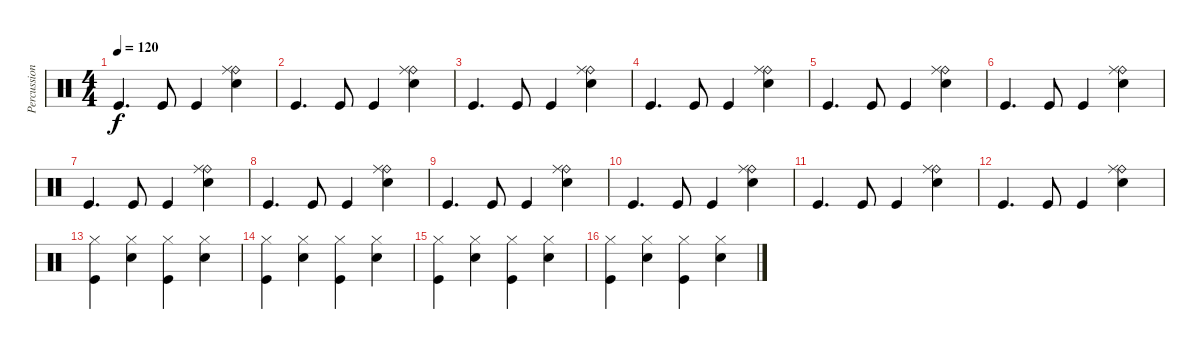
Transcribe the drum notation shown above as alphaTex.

\track ("Percussion" "Percussion") {instrument percussion}
\staff {score}
\articulation defaults
\ts (4 4)
\tempo 120
\clef neutral
\ks c "Kick (hit)".4{d dy f} "Kick (hit)".8 "Kick (hit)".4
("Electric Snare (hit)" "Ride (bell)" "Ride (middle)").4 |
"Kick (hit)".4{d} "Kick (hit)".8 "Kick (hit)".4 ("Electric Snare (hit)" "Ride (bell)" "Ride (middle)").4 |
"Kick (hit)".4{d} "Kick (hit)".8 "Kick (hit)".4 ("Electric Snare (hit)" "Ride (bell)" "Ride (middle)").4 |
"Kick (hit)".4{d} "Kick (hit)".8 "Kick (hit)".4 ("Electric Snare (hit)" "Ride (bell)" "Ride (middle)").4 |
"Kick (hit)".4{d} "Kick (hit)".8 "Kick (hit)".4 ("Electric Snare (hit)" "Ride (bell)" "Ride (middle)").4 |
"Kick (hit)".4{d} "Kick (hit)".8 "Kick (hit)".4 ("Electric Snare (hit)" "Ride (bell)" "Ride (middle)").4 |
"Kick (hit)".4{d} "Kick (hit)".8 "Kick (hit)".4 ("Electric Snare (hit)" "Ride (bell)" "Ride (middle)").4 |
"Kick (hit)".4{d} "Kick (hit)".8 "Kick (hit)".4 ("Electric Snare (hit)" "Ride (bell)" "Ride (middle)").4 |
"Kick (hit)".4{d} "Kick (hit)".8 "Kick (hit)".4 ("Electric Snare (hit)" "Ride (bell)" "Ride (middle)").4 |
"Kick (hit)".4{d} "Kick (hit)".8 "Kick (hit)".4 ("Electric Snare (hit)" "Ride (bell)" "Ride (middle)").4 |
"Kick (hit)".4{d} "Kick (hit)".8 "Kick (hit)".4 ("Electric Snare (hit)" "Ride (bell)" "Ride (middle)").4 |
"Kick (hit)".4{d} "Kick (hit)".8 "Kick (hit)".4 ("Electric Snare (hit)" "Ride (bell)" "Ride (middle)").4 |
("Hi-Hat (closed)" "Kick (hit)").4 ("Hi-Hat (closed)" "Snare (hit) 2").4 ("Hi-Hat (closed)" "Kick (hit)").4 ("Hi-Hat (closed)" "Snare (hit) 2").4 |
("Hi-Hat (closed)" "Kick (hit)").4 ("Hi-Hat (closed)" "Snare (hit) 2").4 ("Hi-Hat (closed)" "Kick (hit)").4 ("Hi-Hat (closed)" "Snare (hit) 2").4 |
("Hi-Hat (closed)" "Kick (hit)").4 ("Hi-Hat (closed)" "Snare (hit) 2").4 ("Hi-Hat (closed)" "Kick (hit)").4 ("Hi-Hat (closed)" "Snare (hit) 2").4 |
("Hi-Hat (closed)" "Kick (hit)").4 ("Hi-Hat (closed)" "Snare (hit) 2").4 ("Hi-Hat (closed)" "Kick (hit)").4 ("Hi-Hat (closed)" "Snare (hit) 2").4
